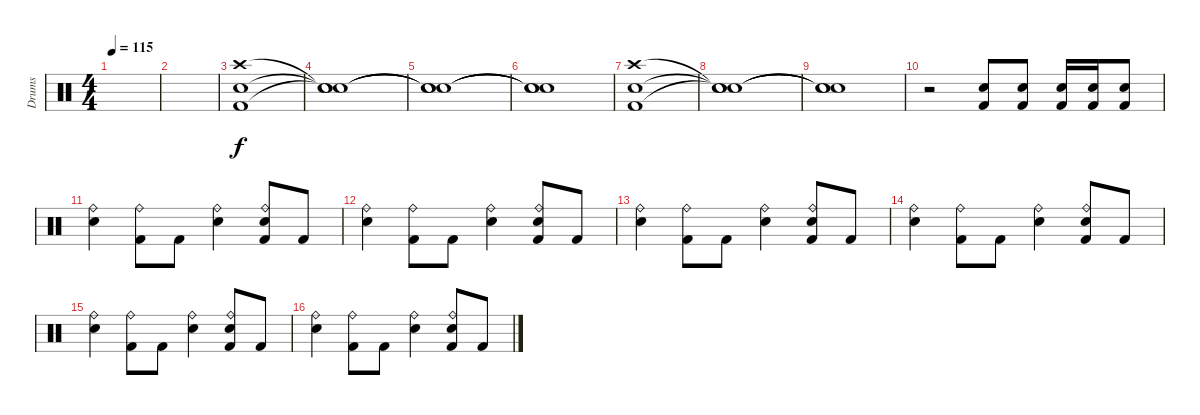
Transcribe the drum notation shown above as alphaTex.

\track ("Drums" "Drums") {instrument percussion}
\staff {score}
\articulation defaults
\ts (4 4)
\tempo 115
\clef neutral
\ks c
|
|
("Crash high (hit)" "Kick (hit) 2" "Snare (hit) 2").1 |
("Snare (hit)"{t} "Snare (hit)"{t} "Snare (hit)"{t}).1 |
("Snare (hit)"{t} "Snare (hit)"{t} "Snare (hit)"{t}).1 |
("Snare (hit)"{t} "Snare (hit)"{t} "Snare (hit)"{t}).1 |
("Crash high (hit)" "Kick (hit) 2" "Snare (hit) 2").1 |
("Snare (hit)"{t} "Snare (hit)"{t} "Snare (hit)"{t}).1 |
("Snare (hit)"{t} "Snare (hit)"{t} "Snare (hit)"{t}).1 |
r.2 ("Snare (hit) 2" "Kick (hit) 2").8 ("Snare (hit) 2" "Kick (hit) 2").8 ("Snare (hit) 2" "Kick (hit) 2").16 ("Snare (hit) 2" "Kick (hit) 2").16 ("Snare (hit) 2" "Kick (hit) 2").8 |
("Ride (bell)" "Snare (hit) 2").4 ("Ride (bell)" "Kick (hit) 2").8 "Kick (hit) 2".8 ("Ride (bell)" "Electric Snare (hit)").4 ("Ride (bell)" "Kick (hit) 2" "Electric Snare (hit)").8 "Kick (hit) 2".8 |
("Ride (bell)" "Snare (hit) 2").4 ("Ride (bell)" "Kick (hit) 2").8 "Kick (hit) 2".8 ("Ride (bell)" "Electric Snare (hit)").4 ("Ride (bell)" "Kick (hit) 2" "Electric Snare (hit)").8 "Kick (hit) 2".8 |
("Ride (bell)" "Snare (hit) 2").4 ("Ride (bell)" "Kick (hit) 2").8 "Kick (hit) 2".8 ("Ride (bell)" "Electric Snare (hit)").4 ("Ride (bell)" "Kick (hit) 2" "Electric Snare (hit)").8 "Kick (hit) 2".8 |
("Ride (bell)" "Snare (hit) 2").4 ("Ride (bell)" "Kick (hit) 2").8 "Kick (hit) 2".8 ("Ride (bell)" "Electric Snare (hit)").4 ("Ride (bell)" "Kick (hit) 2" "Electric Snare (hit)").8 "Kick (hit) 2".8 |
("Ride (bell)" "Snare (hit) 2").4 ("Ride (bell)" "Kick (hit) 2").8 "Kick (hit) 2".8 ("Ride (bell)" "Electric Snare (hit)").4 ("Ride (bell)" "Kick (hit) 2" "Electric Snare (hit)").8 "Kick (hit) 2".8 |
("Ride (bell)" "Snare (hit) 2").4 ("Ride (bell)" "Kick (hit) 2").8 "Kick (hit) 2".8 ("Ride (bell)" "Electric Snare (hit)").4 ("Ride (bell)" "Kick (hit) 2" "Electric Snare (hit)").8 "Kick (hit) 2".8
